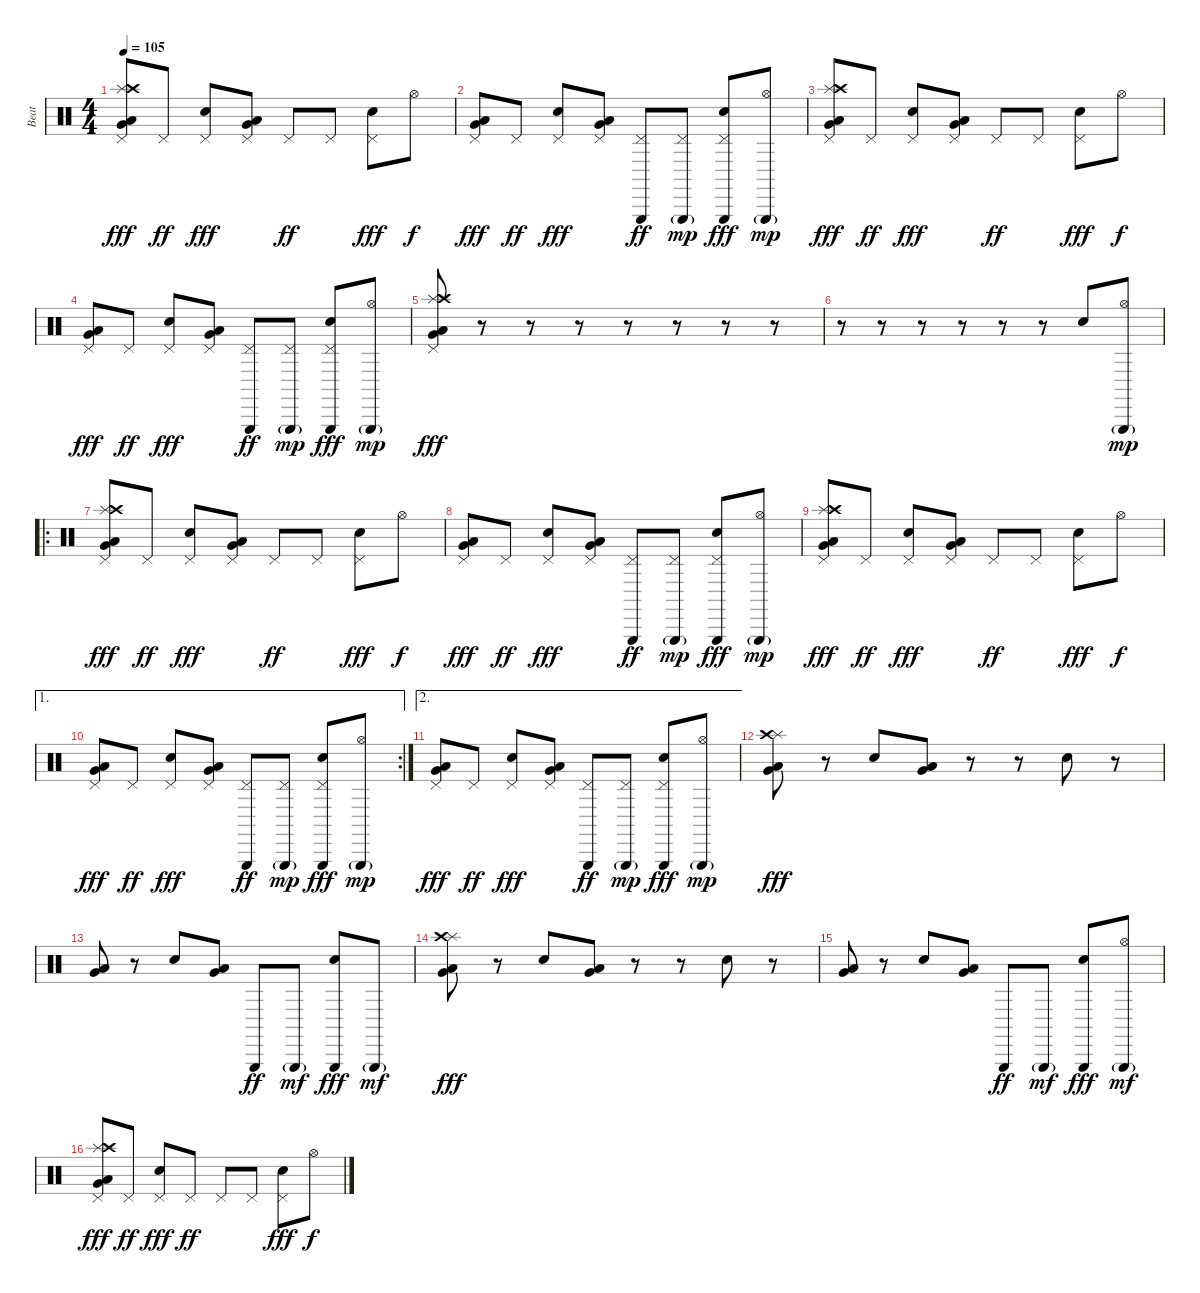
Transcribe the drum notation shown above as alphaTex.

\track ("Beat" "Beat") {instrument percussion}
\staff {score}
\articulation defaults
\ts (4 4)
\tempo 105
\clef neutral
\ks c
("Pedal Hi-Hat (hit)" "Splash (hit)" "Crash high (hit)" "Low Floor Tom (hit)" "Very Low Tom (hit)").8{dy fff} "Pedal Hi-Hat (hit)".8{dy ff} ("Pedal Hi-Hat (hit)" "Hand Clap (hit)").8{dy fff} ("Pedal Hi-Hat (hit)" "Low Floor Tom (hit)" "Very Low Tom (hit)").8 "Pedal Hi-Hat (hit)".8{dy ff} "Pedal Hi-Hat (hit)".8 ("Pedal Hi-Hat (hit)" "Hand Clap (hit)").8{dy fff} "Hi-Hat (open)".8{dy f} |
("Pedal Hi-Hat (hit)" "Low Floor Tom (hit)" "Very Low Tom (hit)").8{dy fff} "Pedal Hi-Hat (hit)".8{dy ff} ("Pedal Hi-Hat (hit)" "Hand Clap (hit)").8{dy fff} ("Pedal Hi-Hat (hit)" "Low Floor Tom (hit)" "Very Low Tom (hit)").8 ("Pedal Hi-Hat (hit)" "Triangle (hit)").8{dy ff} ("Pedal Hi-Hat (hit)" "Triangle (hit)"{g}).8{dy mp} ("Pedal Hi-Hat (hit)" "Triangle (hit)" "Hand Clap (hit)").8{dy fff} ("Hi-Hat (open)" "Triangle (hit)"{g}).8{dy mp} |
("Pedal Hi-Hat (hit)" "Splash (hit)" "Crash high (hit)" "Low Floor Tom (hit)" "Very Low Tom (hit)").8{dy fff} "Pedal Hi-Hat (hit)".8{dy ff} ("Pedal Hi-Hat (hit)" "Hand Clap (hit)").8{dy fff} ("Pedal Hi-Hat (hit)" "Low Floor Tom (hit)" "Very Low Tom (hit)").8 "Pedal Hi-Hat (hit)".8{dy ff} "Pedal Hi-Hat (hit)".8 ("Pedal Hi-Hat (hit)" "Hand Clap (hit)").8{dy fff} "Hi-Hat (open)".8{dy f} |
("Pedal Hi-Hat (hit)" "Low Floor Tom (hit)" "Very Low Tom (hit)").8{dy fff} "Pedal Hi-Hat (hit)".8{dy ff} ("Pedal Hi-Hat (hit)" "Hand Clap (hit)").8{dy fff} ("Pedal Hi-Hat (hit)" "Low Floor Tom (hit)" "Very Low Tom (hit)").8 ("Pedal Hi-Hat (hit)" "Triangle (hit)").8{dy ff} ("Pedal Hi-Hat (hit)" "Triangle (hit)"{g}).8{dy mp} ("Pedal Hi-Hat (hit)" "Triangle (hit)" "Hand Clap (hit)").8{dy fff} ("Hi-Hat (open)" "Triangle (hit)"{g}).8{dy mp} |
("Pedal Hi-Hat (hit)" "Splash (hit)" "Crash high (hit)" "Low Floor Tom (hit)" "Very Low Tom (hit)").8{dy fff} r.8 r.8 r.8 r.8 r.8 r.8 r.8 |
r.8 r.8 r.8 r.8 r.8 r.8 "Hand Clap (hit)".8 ("Hi-Hat (open)" "Triangle (hit)"{g}).8{dy mp} |
\ro
("Pedal Hi-Hat (hit)" "Splash (hit)" "Crash high (hit)" "Low Floor Tom (hit)" "Very Low Tom (hit)").8{dy fff} "Pedal Hi-Hat (hit)".8{dy ff} ("Pedal Hi-Hat (hit)" "Hand Clap (hit)").8{dy fff} ("Pedal Hi-Hat (hit)" "Low Floor Tom (hit)" "Very Low Tom (hit)").8 "Pedal Hi-Hat (hit)".8{dy ff} "Pedal Hi-Hat (hit)".8 ("Pedal Hi-Hat (hit)" "Hand Clap (hit)").8{dy fff} "Hi-Hat (open)".8{dy f} |
("Pedal Hi-Hat (hit)" "Low Floor Tom (hit)" "Very Low Tom (hit)").8{dy fff} "Pedal Hi-Hat (hit)".8{dy ff} ("Pedal Hi-Hat (hit)" "Hand Clap (hit)").8{dy fff} ("Pedal Hi-Hat (hit)" "Low Floor Tom (hit)" "Very Low Tom (hit)").8 ("Pedal Hi-Hat (hit)" "Triangle (hit)").8{dy ff} ("Pedal Hi-Hat (hit)" "Triangle (hit)"{g}).8{dy mp} ("Pedal Hi-Hat (hit)" "Triangle (hit)" "Hand Clap (hit)").8{dy fff} ("Hi-Hat (open)" "Triangle (hit)"{g}).8{dy mp} |
("Pedal Hi-Hat (hit)" "Splash (hit)" "Crash high (hit)" "Low Floor Tom (hit)" "Very Low Tom (hit)").8{dy fff} "Pedal Hi-Hat (hit)".8{dy ff} ("Pedal Hi-Hat (hit)" "Hand Clap (hit)").8{dy fff} ("Pedal Hi-Hat (hit)" "Low Floor Tom (hit)" "Very Low Tom (hit)").8 "Pedal Hi-Hat (hit)".8{dy ff} "Pedal Hi-Hat (hit)".8 ("Pedal Hi-Hat (hit)" "Hand Clap (hit)").8{dy fff} "Hi-Hat (open)".8{dy f} |
\ae 1
\rc 2
("Pedal Hi-Hat (hit)" "Low Floor Tom (hit)" "Very Low Tom (hit)").8{dy fff} "Pedal Hi-Hat (hit)".8{dy ff} ("Pedal Hi-Hat (hit)" "Hand Clap (hit)").8{dy fff} ("Pedal Hi-Hat (hit)" "Low Floor Tom (hit)" "Very Low Tom (hit)").8 ("Pedal Hi-Hat (hit)" "Triangle (hit)").8{dy ff} ("Pedal Hi-Hat (hit)" "Triangle (hit)"{g}).8{dy mp} ("Pedal Hi-Hat (hit)" "Triangle (hit)" "Hand Clap (hit)").8{dy fff} ("Hi-Hat (open)" "Triangle (hit)"{g}).8{dy mp} |
\ae 2
("Pedal Hi-Hat (hit)" "Low Floor Tom (hit)" "Very Low Tom (hit)").8{dy fff} "Pedal Hi-Hat (hit)".8{dy ff} ("Pedal Hi-Hat (hit)" "Hand Clap (hit)").8{dy fff} ("Pedal Hi-Hat (hit)" "Low Floor Tom (hit)" "Very Low Tom (hit)").8 ("Pedal Hi-Hat (hit)" "Triangle (hit)").8{dy ff} ("Pedal Hi-Hat (hit)" "Triangle (hit)"{g}).8{dy mp} ("Pedal Hi-Hat (hit)" "Triangle (hit)" "Hand Clap (hit)").8{dy fff} ("Hi-Hat (open)" "Triangle (hit)"{g}).8{dy mp} |
("Splash (hit)" "Crash high (hit)" "Low Floor Tom (hit)" "Very Low Tom (hit)").8{dy fff} r.8 "Hand Clap (hit)".8 ("Low Floor Tom (hit)" "Very Low Tom (hit)").8 r.8 r.8 "Hand Clap (hit)".8 r.8 |
("Low Floor Tom (hit)" "Very Low Tom (hit)").8 r.8 "Hand Clap (hit)".8 ("Low Floor Tom (hit)" "Very Low Tom (hit)").8 "Triangle (hit)".8{dy ff} "Triangle (hit)"{g}.8{dy mf} ("Triangle (hit)" "Hand Clap (hit)").8{dy fff} "Triangle (hit)"{g}.8{dy mf} |
("Splash (hit)" "Crash high (hit)" "Low Floor Tom (hit)" "Very Low Tom (hit)").8{dy fff} r.8 "Hand Clap (hit)".8 ("Low Floor Tom (hit)" "Very Low Tom (hit)").8 r.8 r.8 "Hand Clap (hit)".8 r.8 |
("Low Floor Tom (hit)" "Very Low Tom (hit)").8 r.8 "Hand Clap (hit)".8 ("Low Floor Tom (hit)" "Very Low Tom (hit)").8 "Triangle (hit)".8{dy ff} "Triangle (hit)"{g}.8{dy mf} ("Triangle (hit)" "Hand Clap (hit)").8{dy fff} ("Hi-Hat (open)" "Triangle (hit)"{g}).8{dy mf} |
("Pedal Hi-Hat (hit)" "Splash (hit)" "Crash high (hit)" "Low Floor Tom (hit)" "Very Low Tom (hit)").8{dy fff} "Pedal Hi-Hat (hit)".8{dy ff} ("Pedal Hi-Hat (hit)" "Hand Clap (hit)").8{dy fff} "Pedal Hi-Hat (hit)".8{dy ff} "Pedal Hi-Hat (hit)".8 "Pedal Hi-Hat (hit)".8 ("Pedal Hi-Hat (hit)" "Hand Clap (hit)").8{dy fff} "Hi-Hat (open)".8{dy f}
